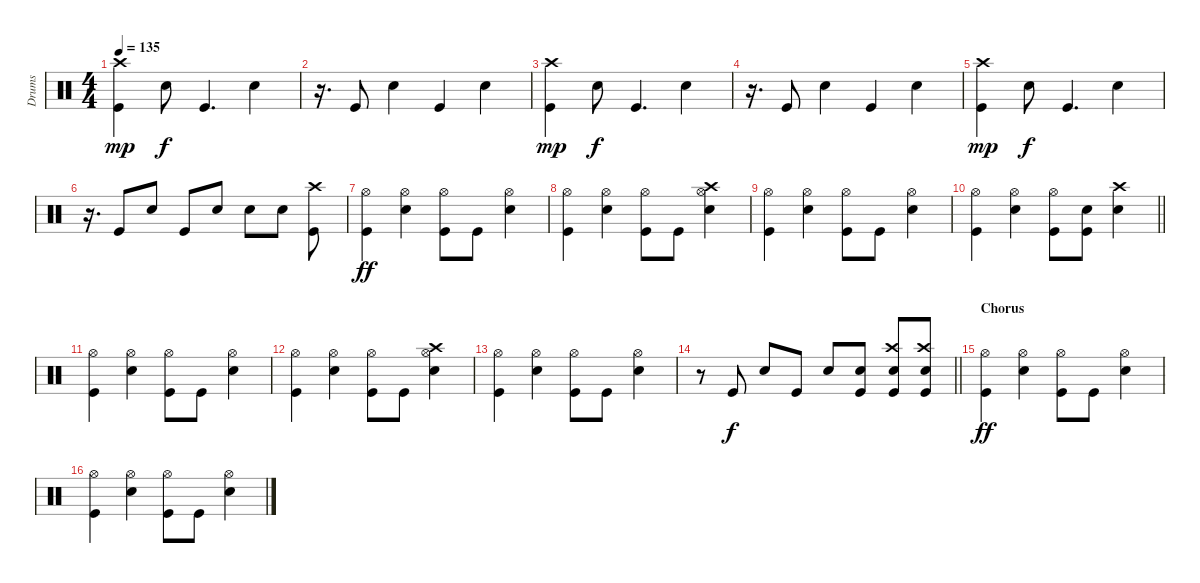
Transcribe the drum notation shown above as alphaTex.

\track ("Drums" "Drums") {instrument percussion}
\staff {score}
\articulation defaults
\ts (4 4)
\tempo 135
\clef neutral
\ks c
("Kick (hit)" "Crash high (hit)").4{dy mp} "Snare (hit) 2".8{dy f} "Kick (hit)".4{d} "Snare (hit) 2".4 |
r.16{d} "Kick (hit)".8 "Snare (hit) 2".4 "Kick (hit)".4 "Snare (hit) 2".4 |
("Kick (hit)" "Crash high (hit)").4{dy mp} "Snare (hit) 2".8{dy f} "Kick (hit)".4{d} "Snare (hit) 2".4 |
r.16{d} "Kick (hit)".8 "Snare (hit) 2".4 "Kick (hit)".4 "Snare (hit) 2".4 |
("Kick (hit)" "Crash high (hit)").4{dy mp} "Snare (hit) 2".8{dy f} "Kick (hit)".4{d} "Snare (hit) 2".4 |
r.16{d} "Kick (hit)".8 "Snare (hit) 2".8 "Kick (hit)".8 "Snare (hit) 2".8 "Snare (hit) 2".8 "Snare (hit) 2".8 ("Kick (hit)" "Crash high (hit)").8 |
("Kick (hit)" "Hi-Hat (open)").4{dy ff} ("Snare (hit) 2" "Hi-Hat (open)").4 ("Kick (hit)" "Hi-Hat (open)").8 "Kick (hit)".8 ("Snare (hit) 2" "Hi-Hat (open)").4 |
("Kick (hit)" "Hi-Hat (open)").4 ("Snare (hit) 2" "Hi-Hat (open)").4 ("Kick (hit)" "Hi-Hat (open)").8 "Kick (hit)".8 ("Snare (hit) 2" "Crash high (hit)" "Hi-Hat (open)").4 |
("Kick (hit)" "Hi-Hat (open)").4 ("Snare (hit) 2" "Hi-Hat (open)").4 ("Kick (hit)" "Hi-Hat (open)").8 "Kick (hit)".8 ("Snare (hit) 2" "Hi-Hat (open)").4 |
\barLineRight lightlight
("Kick (hit)" "Hi-Hat (open)").4 ("Snare (hit) 2" "Hi-Hat (open)").4 ("Kick (hit)" "Hi-Hat (open)").8 ("Kick (hit)" "Snare (hit) 2").8 ("Snare (hit) 2" "Crash high (hit)").4 |
("Kick (hit)" "Hi-Hat (open)").4 ("Snare (hit) 2" "Hi-Hat (open)").4 ("Kick (hit)" "Hi-Hat (open)").8 "Kick (hit)".8 ("Snare (hit) 2" "Hi-Hat (open)").4 |
("Kick (hit)" "Hi-Hat (open)").4 ("Snare (hit) 2" "Hi-Hat (open)").4 ("Kick (hit)" "Hi-Hat (open)").8 "Kick (hit)".8 ("Snare (hit) 2" "Crash high (hit)" "Hi-Hat (open)").4 |
("Kick (hit)" "Hi-Hat (open)").4 ("Snare (hit) 2" "Hi-Hat (open)").4 ("Kick (hit)" "Hi-Hat (open)").8 "Kick (hit)".8 ("Snare (hit) 2" "Hi-Hat (open)").4 |
\barLineRight lightlight
r.8 "Kick (hit)".8{dy f} "Snare (hit) 2".8 "Kick (hit)".8 "Snare (hit) 2".8 ("Kick (hit)" "Snare (hit) 2").8 ("Kick (hit)" "Snare (hit) 2" "Crash high (hit)").8 ("Kick (hit)" "Snare (hit) 2" "Crash high (hit)").8 |
\section ("" "Chorus")
("Kick (hit)" "Hi-Hat (open)").4{dy ff} ("Snare (hit) 2" "Hi-Hat (open)").4 ("Kick (hit)" "Hi-Hat (open)").8 "Kick (hit)".8 ("Snare (hit) 2" "Hi-Hat (open)").4 |
("Kick (hit)" "Hi-Hat (open)").4 ("Snare (hit) 2" "Hi-Hat (open)").4 ("Kick (hit)" "Hi-Hat (open)").8 "Kick (hit)".8 ("Snare (hit) 2" "Hi-Hat (open)").4
